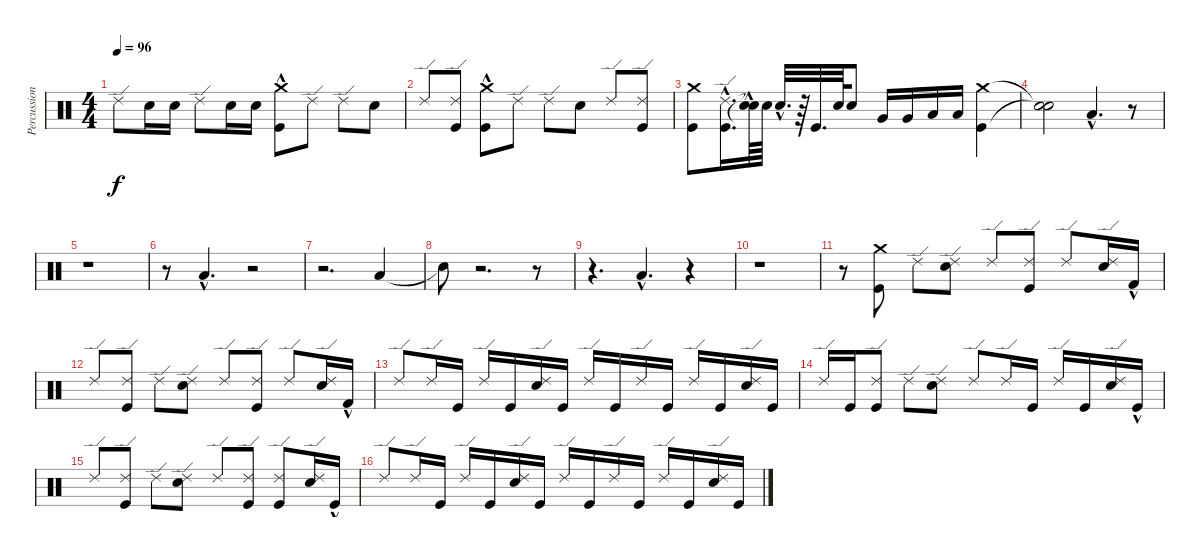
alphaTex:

\track ("Percussion" "Percussion") {instrument percussion}
\staff {score}
\articulation defaults
\ts (4 4)
\tempo 96
\clef neutral
\ks c "Ride (edge) 2".8{dy f} "Electric Snare (hit)".16 "Electric Snare (hit)".16 "Ride (edge) 2".8 "Electric Snare (hit)".16 "Electric Snare (hit)".16
("Kick (hit)"{hac} "Crash medium (hit)").8 "Ride (edge) 2".8 "Ride (edge) 2".8 "Electric Snare (hit)".8 |
"Ride (edge) 2".8 ("Kick (hit)" "Ride (edge) 2").8 ("Kick (hit)"{hac} "Crash medium (hit)").8 "Ride (edge) 2".8 "Ride (edge) 2".8 "Electric Snare (hit)".8 "Ride (edge) 2".8 ("Kick (hit)" "Ride (edge) 2").8 |
("Kick (hit)" "Crash medium (hit)").8 ("Kick (hit)"{hac} "Ride (edge) 2"{hac}).16{d} ("Snare (hit)"{hac t} "Snare (hit)"{t}).64 "Electric Snare (hit)".64 "Electric Snare (hit)"{hac}.32{d} r.64 "Kick (hit)".32{d} "Electric Snare (hit)".64 "Electric Snare (hit)".8 "Very Low Tom (hit)".16 "Very Low Tom (hit)".16 "Low Floor Tom (hit)".16 "Low Floor Tom (hit)".16 ("Crash medium (hit)" "Kick (hit)").4 |
("Snare (hit)"{t} "Snare (hit)"{t}).2 "Low Floor Tom (hit)"{hac}.4{d} r.8 |
r.1 |
r.8 "Low Floor Tom (hit)"{hac}.4{d} r.2 |
r.2{d} "Low Floor Tom (hit)".4 |
"Snare (hit)"{t}.8 r.2{d} r.8 |
r.4{d} "Low Floor Tom (hit)"{hac}.4{d} r.4 |
r.1 |
r.8 ("Kick (hit)" "Crash medium (hit)").8 "Ride (edge) 2".8 ("Electric Snare (hit)" "Ride (edge) 2").8 "Ride (edge) 2".8 ("Kick (hit)" "Ride (edge) 2").8 "Ride (edge) 2".8 ("Electric Snare (hit)" "Ride (edge) 2").16 "Kick (hit) 2"{hac}.16 |
"Ride (edge) 2".8 ("Kick (hit)" "Ride (edge) 2").8 "Ride (edge) 2".8 ("Electric Snare (hit)" "Ride (edge) 2").8 "Ride (edge) 2".8 ("Kick (hit)" "Ride (edge) 2").8 "Ride (edge) 2".8 ("Electric Snare (hit)" "Ride (edge) 2").16 "Kick (hit) 2"{hac}.16 |
"Ride (edge) 2".8 "Ride (edge) 2".16 "Kick (hit)".16 "Ride (edge) 2".16 "Kick (hit)".16 ("Electric Snare (hit)" "Ride (edge) 2").16 "Kick (hit)".16 "Ride (edge) 2".16 "Kick (hit)".16 "Ride (edge) 2".16 "Kick (hit)".16 "Ride (edge) 2".16 "Kick (hit)".16 ("Electric Snare (hit)" "Ride (edge) 2").16 "Kick (hit)".16 |
"Ride (edge) 2".16 "Kick (hit)".16 ("Kick (hit)" "Ride (edge) 2").8 "Ride (edge) 2".8 ("Electric Snare (hit)" "Ride (edge) 2").8 "Ride (edge) 2".8 "Ride (edge) 2".16 "Kick (hit)".16 "Ride (edge) 2".16 "Kick (hit)".16 ("Electric Snare (hit)" "Ride (edge) 2").16 "Kick (hit)"{hac}.16 |
"Ride (edge) 2".8 ("Kick (hit)" "Ride (edge) 2").8 "Ride (edge) 2".8 ("Electric Snare (hit)" "Ride (edge) 2").8 "Ride (edge) 2".8 ("Kick (hit)" "Ride (edge) 2").8 ("Kick (hit)" "Ride (edge) 2").8 ("Electric Snare (hit)" "Ride (edge) 2").16 "Kick (hit)"{hac}.16 |
"Ride (edge) 2".8 "Ride (edge) 2".16 "Kick (hit)".16 "Ride (edge) 2".16 "Kick (hit)".16 ("Electric Snare (hit)" "Ride (edge) 2").16 "Kick (hit)".16 "Ride (edge) 2".16 "Kick (hit)".16 "Ride (edge) 2".16 "Kick (hit)".16 "Ride (edge) 2".16 "Kick (hit)".16 ("Electric Snare (hit)" "Ride (edge) 2").16 "Kick (hit)".16
